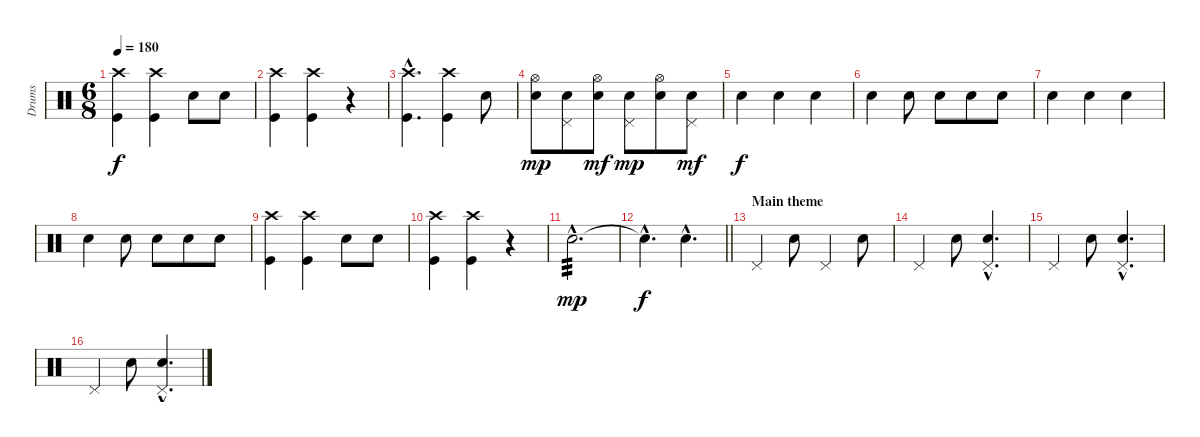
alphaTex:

\track ("Drums" "Drums") {instrument percussion}
\staff {score}
\articulation defaults
\ts (6 8)
\tempo 180
\clef neutral
\ks c
("Crash high (hit)" "Kick (hit)").4{dy f} ("Crash high (hit)" "Kick (hit)").4 "Electric Snare (hit)".8 "Electric Snare (hit)".8 |
("Crash high (hit)" "Kick (hit)").4 ("Crash high (hit)" "Kick (hit)").4 r.4 |
("Crash high (hit)"{hac} "Kick (hit)"{hac}).4{d} ("Crash high (hit)" "Kick (hit)").4 "Electric Snare (hit)".8 |
("Hi-Hat (open)" "Electric Snare (hit)").8{dy mp} ("Pedal Hi-Hat (hit)" "Electric Snare (hit)").8 ("Hi-Hat (open)" "Electric Snare (hit)").8{dy mf} ("Pedal Hi-Hat (hit)" "Electric Snare (hit)").8{dy mp} ("Hi-Hat (open)" "Electric Snare (hit)").8 ("Pedal Hi-Hat (hit)" "Electric Snare (hit)").8{dy mf} |
"Electric Snare (hit)".4{dy f} "Electric Snare (hit)".4 "Electric Snare (hit)".4 |
"Electric Snare (hit)".4 "Electric Snare (hit)".8 "Electric Snare (hit)".8 "Electric Snare (hit)".8 "Electric Snare (hit)".8 |
"Electric Snare (hit)".4 "Electric Snare (hit)".4 "Electric Snare (hit)".4 |
"Electric Snare (hit)".4 "Electric Snare (hit)".8 "Electric Snare (hit)".8 "Electric Snare (hit)".8 "Electric Snare (hit)".8 |
("Crash high (hit)" "Kick (hit)").4 ("Crash high (hit)" "Kick (hit)").4 "Electric Snare (hit)".8 "Electric Snare (hit)".8 |
("Crash high (hit)" "Kick (hit)").4 ("Crash high (hit)" "Kick (hit)").4 r.4 |
"Electric Snare (hit)"{hac}.2{d tp 3 dy mp} |
\barLineRight lightlight "Electric Snare (hit)"{hac t}.4{d dy f} "Electric Snare (hit)"{hac}.4{d}
|
\section ("" "Main theme")
"Pedal Hi-Hat (hit)".4 "Electric Snare (hit)".8 "Pedal Hi-Hat (hit)".4 "Electric Snare (hit)".8 |
"Pedal Hi-Hat (hit)".4 "Electric Snare (hit)".8 ("Pedal Hi-Hat (hit)"{hac} "Electric Snare (hit)"{hac}).4{d} |
"Pedal Hi-Hat (hit)".4 "Electric Snare (hit)".8 ("Pedal Hi-Hat (hit)"{hac} "Electric Snare (hit)"{hac}).4{d} |
"Pedal Hi-Hat (hit)".4 "Electric Snare (hit)".8 ("Pedal Hi-Hat (hit)"{hac} "Electric Snare (hit)"{hac}).4{d}
